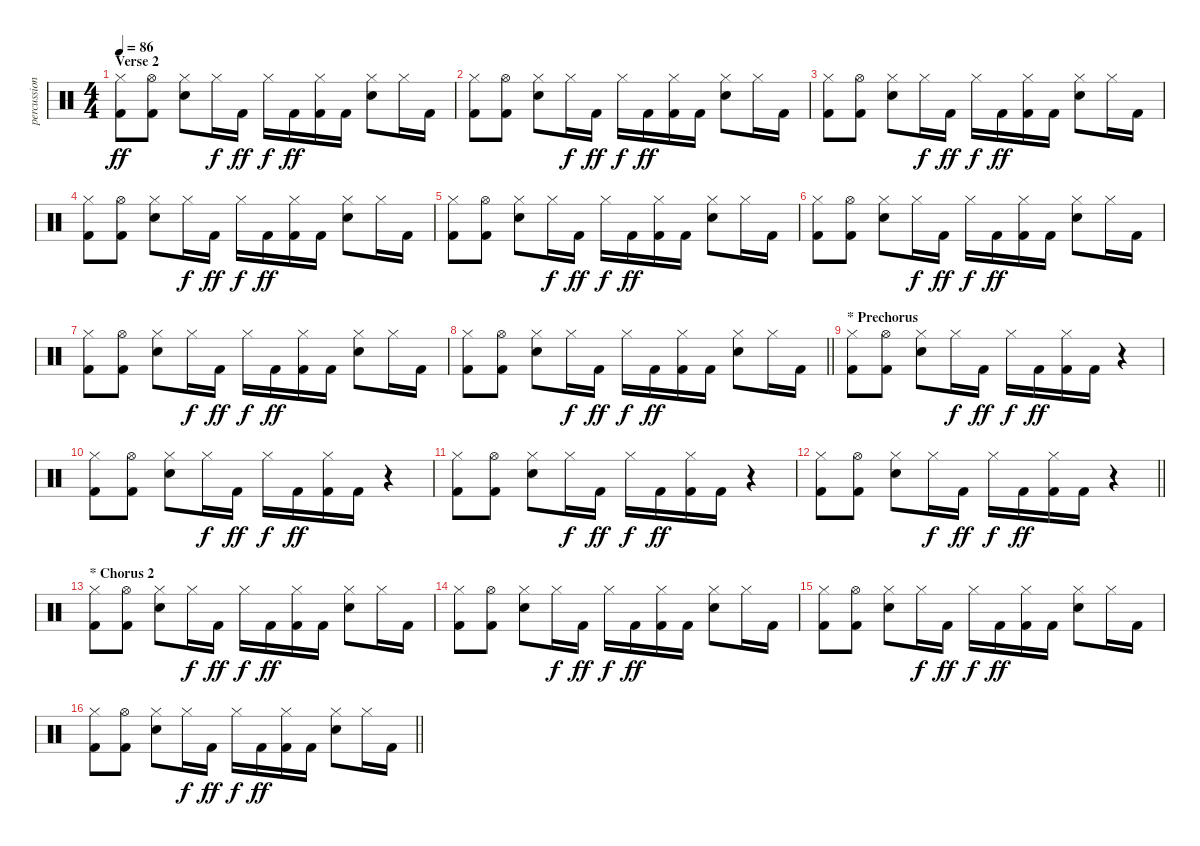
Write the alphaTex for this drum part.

\track ("percussion" "percussion") {instrument percussion}
\staff {score}
\articulation defaults
\ts (4 4)
\section ("" "Verse 2")
\tempo 86
\clef neutral
\ks c
("Hi-Hat (closed)" "Kick (hit) 2").8{dy ff} ("Hi-Hat (open)" "Kick (hit) 2").8 ("Electric Snare (hit)" "Hi-Hat (closed)").8 "Hi-Hat (closed)".16{dy f} "Kick (hit) 2".16{dy ff} "Hi-Hat (closed)".16{dy f} "Kick (hit) 2".16{dy ff} ("Hi-Hat (closed)" "Kick (hit) 2").16 "Kick (hit) 2".16 ("Electric Snare (hit)" "Hi-Hat (closed)").8 "Hi-Hat (closed)".16 "Kick (hit) 2".16 |
("Hi-Hat (closed)" "Kick (hit) 2").8 ("Hi-Hat (open)" "Kick (hit) 2").8 ("Electric Snare (hit)" "Hi-Hat (closed)").8 "Hi-Hat (closed)".16{dy f} "Kick (hit) 2".16{dy ff} "Hi-Hat (closed)".16{dy f} "Kick (hit) 2".16{dy ff} ("Hi-Hat (closed)" "Kick (hit) 2").16 "Kick (hit) 2".16 ("Electric Snare (hit)" "Hi-Hat (closed)").8 "Hi-Hat (closed)".16 "Kick (hit) 2".16 |
("Hi-Hat (closed)" "Kick (hit) 2").8 ("Hi-Hat (open)" "Kick (hit) 2").8 ("Electric Snare (hit)" "Hi-Hat (closed)").8 "Hi-Hat (closed)".16{dy f} "Kick (hit) 2".16{dy ff} "Hi-Hat (closed)".16{dy f} "Kick (hit) 2".16{dy ff} ("Hi-Hat (closed)" "Kick (hit) 2").16 "Kick (hit) 2".16 ("Electric Snare (hit)" "Hi-Hat (closed)").8 "Hi-Hat (closed)".16 "Kick (hit) 2".16 |
("Hi-Hat (closed)" "Kick (hit) 2").8 ("Hi-Hat (open)" "Kick (hit) 2").8 ("Electric Snare (hit)" "Hi-Hat (closed)").8 "Hi-Hat (closed)".16{dy f} "Kick (hit) 2".16{dy ff} "Hi-Hat (closed)".16{dy f} "Kick (hit) 2".16{dy ff} ("Hi-Hat (closed)" "Kick (hit) 2").16 "Kick (hit) 2".16 ("Electric Snare (hit)" "Hi-Hat (closed)").8 "Hi-Hat (closed)".16 "Kick (hit) 2".16 |
("Hi-Hat (closed)" "Kick (hit) 2").8 ("Hi-Hat (open)" "Kick (hit) 2").8 ("Electric Snare (hit)" "Hi-Hat (closed)").8 "Hi-Hat (closed)".16{dy f} "Kick (hit) 2".16{dy ff} "Hi-Hat (closed)".16{dy f} "Kick (hit) 2".16{dy ff} ("Hi-Hat (closed)" "Kick (hit) 2").16 "Kick (hit) 2".16 ("Electric Snare (hit)" "Hi-Hat (closed)").8 "Hi-Hat (closed)".16 "Kick (hit) 2".16 |
("Hi-Hat (closed)" "Kick (hit) 2").8 ("Hi-Hat (open)" "Kick (hit) 2").8 ("Electric Snare (hit)" "Hi-Hat (closed)").8 "Hi-Hat (closed)".16{dy f} "Kick (hit) 2".16{dy ff} "Hi-Hat (closed)".16{dy f} "Kick (hit) 2".16{dy ff} ("Hi-Hat (closed)" "Kick (hit) 2").16 "Kick (hit) 2".16 ("Electric Snare (hit)" "Hi-Hat (closed)").8 "Hi-Hat (closed)".16 "Kick (hit) 2".16 |
("Hi-Hat (closed)" "Kick (hit) 2").8 ("Hi-Hat (open)" "Kick (hit) 2").8 ("Electric Snare (hit)" "Hi-Hat (closed)").8 "Hi-Hat (closed)".16{dy f} "Kick (hit) 2".16{dy ff} "Hi-Hat (closed)".16{dy f} "Kick (hit) 2".16{dy ff} ("Hi-Hat (closed)" "Kick (hit) 2").16 "Kick (hit) 2".16 ("Electric Snare (hit)" "Hi-Hat (closed)").8 "Hi-Hat (closed)".16 "Kick (hit) 2".16 |
\barLineRight lightlight
("Hi-Hat (closed)" "Kick (hit) 2").8 ("Hi-Hat (open)" "Kick (hit) 2").8 ("Electric Snare (hit)" "Hi-Hat (closed)").8 "Hi-Hat (closed)".16{dy f} "Kick (hit) 2".16{dy ff} "Hi-Hat (closed)".16{dy f} "Kick (hit) 2".16{dy ff} ("Hi-Hat (closed)" "Kick (hit) 2").16 "Kick (hit) 2".16 ("Electric Snare (hit)" "Hi-Hat (closed)").8 "Hi-Hat (closed)".16 "Kick (hit) 2".16 |
\section ("" "* Prechorus")
("Hi-Hat (closed)" "Kick (hit) 2").8 ("Hi-Hat (open)" "Kick (hit) 2").8 ("Electric Snare (hit)" "Hi-Hat (closed)").8 "Hi-Hat (closed)".16{dy f} "Kick (hit) 2".16{dy ff} "Hi-Hat (closed)".16{dy f} "Kick (hit) 2".16{dy ff} ("Hi-Hat (closed)" "Kick (hit) 2").16 "Kick (hit) 2".16 r.4 |
("Hi-Hat (closed)" "Kick (hit) 2").8 ("Hi-Hat (open)" "Kick (hit) 2").8 ("Electric Snare (hit)" "Hi-Hat (closed)").8 "Hi-Hat (closed)".16{dy f} "Kick (hit) 2".16{dy ff} "Hi-Hat (closed)".16{dy f} "Kick (hit) 2".16{dy ff} ("Hi-Hat (closed)" "Kick (hit) 2").16 "Kick (hit) 2".16 r.4 |
("Hi-Hat (closed)" "Kick (hit) 2").8 ("Hi-Hat (open)" "Kick (hit) 2").8 ("Electric Snare (hit)" "Hi-Hat (closed)").8 "Hi-Hat (closed)".16{dy f} "Kick (hit) 2".16{dy ff} "Hi-Hat (closed)".16{dy f} "Kick (hit) 2".16{dy ff} ("Hi-Hat (closed)" "Kick (hit) 2").16 "Kick (hit) 2".16 r.4 |
\barLineRight lightlight
("Hi-Hat (closed)" "Kick (hit) 2").8 ("Hi-Hat (open)" "Kick (hit) 2").8 ("Electric Snare (hit)" "Hi-Hat (closed)").8 "Hi-Hat (closed)".16{dy f} "Kick (hit) 2".16{dy ff} "Hi-Hat (closed)".16{dy f} "Kick (hit) 2".16{dy ff} ("Hi-Hat (closed)" "Kick (hit) 2").16 "Kick (hit) 2".16 r.4 |
\section ("" "* Chorus 2")
("Hi-Hat (closed)" "Kick (hit) 2").8 ("Hi-Hat (open)" "Kick (hit) 2").8 ("Electric Snare (hit)" "Hi-Hat (closed)").8 "Hi-Hat (closed)".16{dy f} "Kick (hit) 2".16{dy ff} "Hi-Hat (closed)".16{dy f} "Kick (hit) 2".16{dy ff} ("Hi-Hat (closed)" "Kick (hit) 2").16 "Kick (hit) 2".16 ("Electric Snare (hit)" "Hi-Hat (closed)").8 "Hi-Hat (closed)".16 "Kick (hit) 2".16 |
("Hi-Hat (closed)" "Kick (hit) 2").8 ("Hi-Hat (open)" "Kick (hit) 2").8 ("Electric Snare (hit)" "Hi-Hat (closed)").8 "Hi-Hat (closed)".16{dy f} "Kick (hit) 2".16{dy ff} "Hi-Hat (closed)".16{dy f} "Kick (hit) 2".16{dy ff} ("Hi-Hat (closed)" "Kick (hit) 2").16 "Kick (hit) 2".16 ("Electric Snare (hit)" "Hi-Hat (closed)").8 "Hi-Hat (closed)".16 "Kick (hit) 2".16 |
("Hi-Hat (closed)" "Kick (hit) 2").8 ("Hi-Hat (open)" "Kick (hit) 2").8 ("Electric Snare (hit)" "Hi-Hat (closed)").8 "Hi-Hat (closed)".16{dy f} "Kick (hit) 2".16{dy ff} "Hi-Hat (closed)".16{dy f} "Kick (hit) 2".16{dy ff} ("Hi-Hat (closed)" "Kick (hit) 2").16 "Kick (hit) 2".16 ("Electric Snare (hit)" "Hi-Hat (closed)").8 "Hi-Hat (closed)".16 "Kick (hit) 2".16 |
\barLineRight lightlight
("Hi-Hat (closed)" "Kick (hit) 2").8 ("Hi-Hat (open)" "Kick (hit) 2").8 ("Electric Snare (hit)" "Hi-Hat (closed)").8 "Hi-Hat (closed)".16{dy f} "Kick (hit) 2".16{dy ff} "Hi-Hat (closed)".16{dy f} "Kick (hit) 2".16{dy ff} ("Hi-Hat (closed)" "Kick (hit) 2").16 "Kick (hit) 2".16 ("Electric Snare (hit)" "Hi-Hat (closed)").8 "Hi-Hat (closed)".16 "Kick (hit) 2".16
